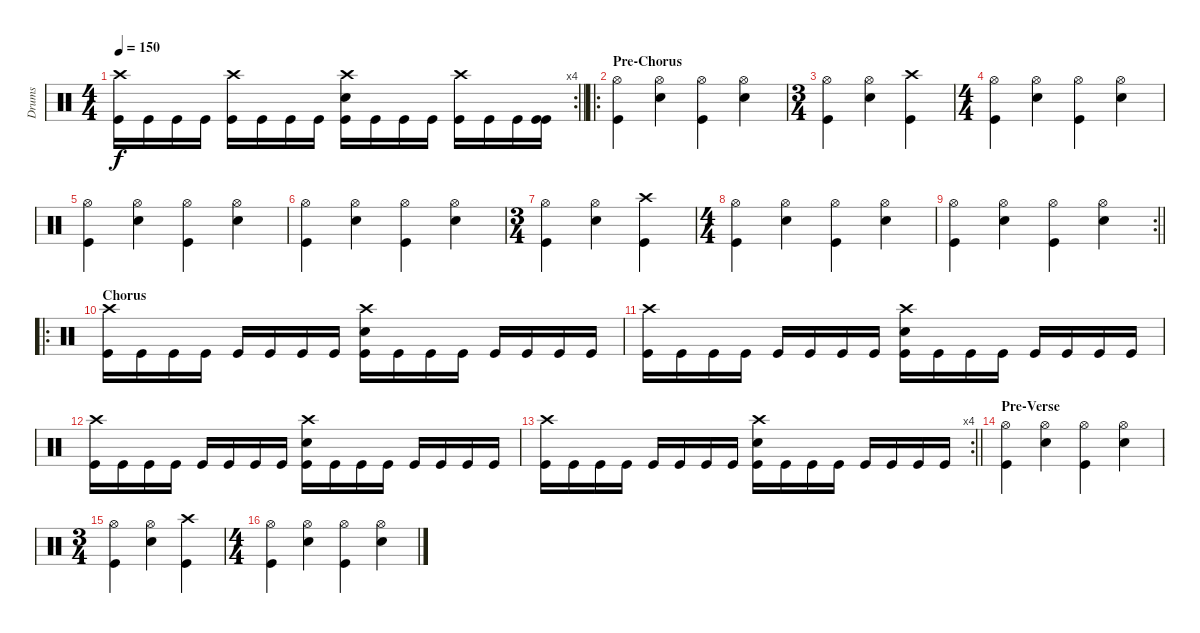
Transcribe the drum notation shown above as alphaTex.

\track ("Drums" "Drums") {instrument percussion}
\staff {score}
\articulation defaults
\rc 4
\ts (4 4)
\tempo 150
\clef neutral
\barLineRight lightlight
\ks c
("Crash high (hit)" "Kick (hit)").16{dy f} "Kick (hit)".16 "Kick (hit)".16 "Kick (hit)".16 ("Crash high (hit)" "Kick (hit)").16 "Kick (hit)".16 "Kick (hit)".16 "Kick (hit)".16 ("Electric Snare (hit)" "Crash high (hit)" "Kick (hit)").16 "Kick (hit)".16 "Kick (hit)".16 "Kick (hit)".16 ("Crash high (hit)" "Kick (hit)").16 "Kick (hit)".16 "Kick (hit)".16 ("Kick (hit)" "Kick (hit)").16 |
\ro
\section ("" "Pre-Chorus")
("Hi-Hat (open)" "Kick (hit)").4 ("Hi-Hat (open)" "Electric Snare (hit)").4 ("Hi-Hat (open)" "Kick (hit)").4 ("Hi-Hat (open)" "Electric Snare (hit)").4 |
\ts (3 4)
("Hi-Hat (open)" "Kick (hit)").4 ("Hi-Hat (open)" "Electric Snare (hit)").4 ("Crash high (hit)" "Kick (hit)").4 |
\ts (4 4)
("Hi-Hat (open)" "Kick (hit)").4 ("Hi-Hat (open)" "Electric Snare (hit)").4 ("Hi-Hat (open)" "Kick (hit)").4 ("Hi-Hat (open)" "Electric Snare (hit)").4 |
("Hi-Hat (open)" "Kick (hit)").4 ("Hi-Hat (open)" "Electric Snare (hit)").4 ("Hi-Hat (open)" "Kick (hit)").4 ("Hi-Hat (open)" "Electric Snare (hit)").4 |
("Hi-Hat (open)" "Kick (hit)").4 ("Hi-Hat (open)" "Electric Snare (hit)").4 ("Hi-Hat (open)" "Kick (hit)").4 ("Hi-Hat (open)" "Electric Snare (hit)").4 |
\ts (3 4)
("Hi-Hat (open)" "Kick (hit)").4 ("Hi-Hat (open)" "Electric Snare (hit)").4 ("Crash high (hit)" "Kick (hit)").4 |
\ts (4 4)
("Hi-Hat (open)" "Kick (hit)").4 ("Hi-Hat (open)" "Electric Snare (hit)").4 ("Hi-Hat (open)" "Kick (hit)").4 ("Hi-Hat (open)" "Electric Snare (hit)").4 |
\rc 2
\barLineRight lightlight
("Hi-Hat (open)" "Kick (hit)").4 ("Hi-Hat (open)" "Electric Snare (hit)").4 ("Hi-Hat (open)" "Kick (hit)").4 ("Hi-Hat (open)" "Electric Snare (hit)").4 |
\ro
\section ("" "Chorus")
("Crash high (hit)" "Kick (hit)").16 "Kick (hit)".16 "Kick (hit)".16 "Kick (hit)".16 "Kick (hit)".16 "Kick (hit)".16 "Kick (hit)".16 "Kick (hit)".16 ("Electric Snare (hit)" "Crash high (hit)" "Kick (hit)").16 "Kick (hit)".16 "Kick (hit)".16 "Kick (hit)".16 "Kick (hit)".16 "Kick (hit)".16 "Kick (hit)".16 "Kick (hit)".16 |
("Crash high (hit)" "Kick (hit)").16 "Kick (hit)".16 "Kick (hit)".16 "Kick (hit)".16 "Kick (hit)".16 "Kick (hit)".16 "Kick (hit)".16 "Kick (hit)".16 ("Electric Snare (hit)" "Crash high (hit)" "Kick (hit)").16 "Kick (hit)".16 "Kick (hit)".16 "Kick (hit)".16 "Kick (hit)".16 "Kick (hit)".16 "Kick (hit)".16 "Kick (hit)".16 |
("Crash high (hit)" "Kick (hit)").16 "Kick (hit)".16 "Kick (hit)".16 "Kick (hit)".16 "Kick (hit)".16 "Kick (hit)".16 "Kick (hit)".16 "Kick (hit)".16 ("Electric Snare (hit)" "Crash high (hit)" "Kick (hit)").16 "Kick (hit)".16 "Kick (hit)".16 "Kick (hit)".16 "Kick (hit)".16 "Kick (hit)".16 "Kick (hit)".16 "Kick (hit)".16 |
\rc 4
\barLineRight lightlight
("Crash high (hit)" "Kick (hit)").16 "Kick (hit)".16 "Kick (hit)".16 "Kick (hit)".16 "Kick (hit)".16 "Kick (hit)".16 "Kick (hit)".16 "Kick (hit)".16 ("Electric Snare (hit)" "Crash high (hit)" "Kick (hit)").16 "Kick (hit)".16 "Kick (hit)".16 "Kick (hit)".16 "Kick (hit)".16 "Kick (hit)".16 "Kick (hit)".16 "Kick (hit)".16 |
\section ("" "Pre-Verse")
("Hi-Hat (open)" "Kick (hit)").4 ("Hi-Hat (open)" "Electric Snare (hit)").4 ("Hi-Hat (open)" "Kick (hit)").4 ("Hi-Hat (open)" "Electric Snare (hit)").4 |
\ts (3 4)
("Hi-Hat (open)" "Kick (hit)").4 ("Hi-Hat (open)" "Electric Snare (hit)").4 ("Crash high (hit)" "Kick (hit)").4 |
\ts (4 4)
("Hi-Hat (open)" "Kick (hit)").4 ("Hi-Hat (open)" "Electric Snare (hit)").4 ("Hi-Hat (open)" "Kick (hit)").4 ("Hi-Hat (open)" "Electric Snare (hit)").4
